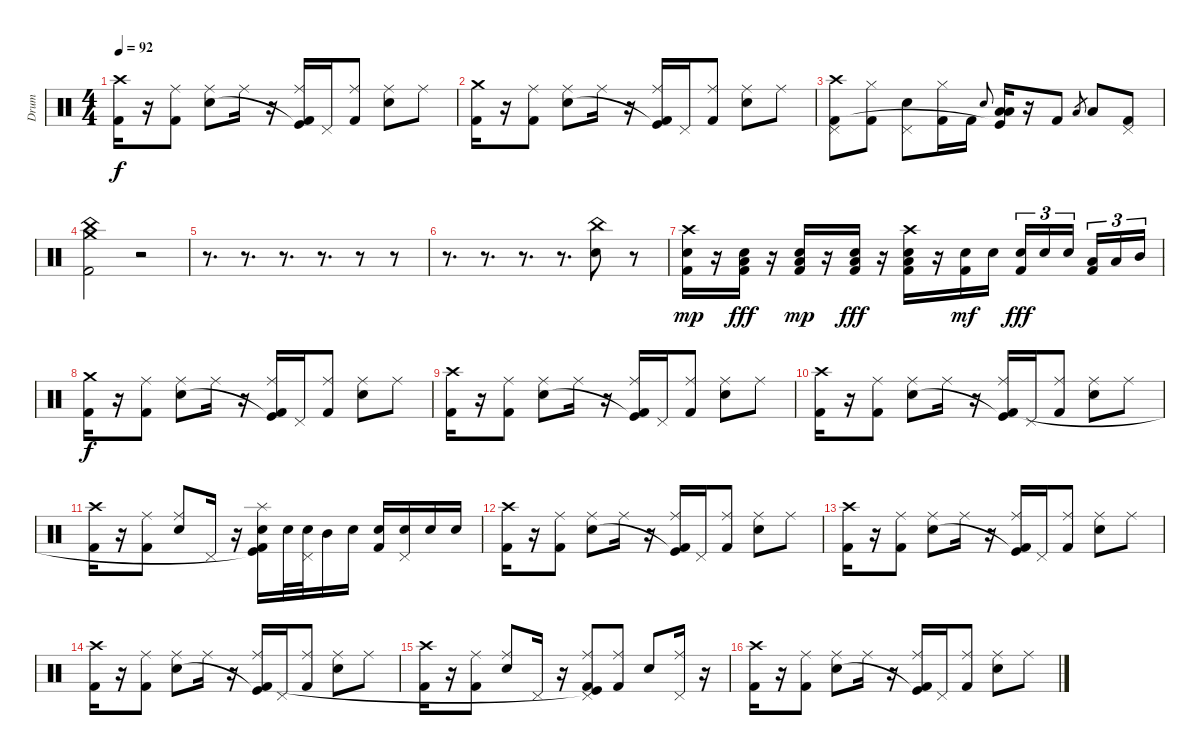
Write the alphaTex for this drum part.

\track ("Drum" "Drum") {instrument percussion}
\staff {score}
\articulation defaults
\ts (4 4)
\tempo 92
\clef neutral
\ks c
("Crash high (hit)" "Kick (hit) 2").16{dy f} r.16 ("Ride (middle)" "Kick (hit) 2").8 ("Ride (middle)" "Snare (hit) 2").8 "Ride (middle)".16 r.16 ("Ride (middle)" "Kick (hit)"{t} "Kick (hit) 2").16 "Pedal Hi-Hat (hit)".16 ("Ride (middle)" "Kick (hit) 2").8 ("Ride (middle)" "Snare (hit) 2").8 "Ride (middle)".8 |
("Crash medium (hit)" "Kick (hit) 2").16 r.16 ("Ride (middle)" "Kick (hit) 2").8 ("Ride (middle)" "Snare (hit) 2").8 "Ride (middle)".16 r.16 ("Ride (middle)" "Kick (hit)"{t} "Kick (hit) 2").16 "Pedal Hi-Hat (hit)".16 ("Ride (middle)" "Kick (hit) 2").8 ("Ride (middle)" "Snare (hit) 2").8 "Ride (middle)".8 |
("Crash high (hit)" "Pedal Hi-Hat (hit)" "Kick (hit) 2").8 ("Hi-Hat (closed)" "Kick (hit) 2").8 ("Snare (hit) 2" "Pedal Hi-Hat (hit)").8 ("Hi-Hat (closed)" "Kick (hit) 2").16 "Kick (hit) 2".16 "Snare (hit) 2".8{gr onbeat} ("Low Tom (hit)" "Low Tom (hit)" "Kick (hit)"{t}).16 r.16 "Kick (hit) 2".8 "Low Tom (hit)".8{gr} "Low Floor Tom (hit)".8 ("Pedal Hi-Hat (hit)" "Kick (hit) 2").8 |
("China (hit)" "Crash medium (hit)" "Kick (hit) 2").2 r.2 |
r.8{d} r.8{d} r.8{d} r.8{d} r.8 r.8 |
r.8{d} r.8{d} r.8{d} r.8{d} ("China (hit)" "Snare (hit) 2").8 r.8 |
("Crash high (hit)" "Snare (hit) 2" "Kick (hit) 2").16{dy mp} r.16 ("Snare (hit) 2" "Low Floor Tom (hit)" "Kick (hit) 2").16{dy fff} r.16 ("Snare (hit) 2" "Low Floor Tom (hit)" "Kick (hit) 2").16{dy mp} r.16 ("Snare (hit) 2" "Low Floor Tom (hit)" "Kick (hit) 2").16{dy fff} r.16 ("Crash high (hit)" "Snare (hit) 2" "Low Floor Tom (hit)" "Kick (hit) 2").16 r.16 ("Snare (hit) 2" "Kick (hit) 2").16{dy mf} "Snare (hit) 2".16 ("Snare (hit) 2" "Kick (hit) 2").16{tu (3 2) dy fff} "Snare (hit) 2".16{tu (3 2)} "Snare (hit) 2".16{tu (3 2) beam splitsecondary} ("Low Tom (hit)" "Kick (hit) 2").16{tu (3 2)} "Low Tom (hit)".16{tu (3 2)} "Mid Tom (hit)".16{tu (3 2)} |
("Crash medium (hit)" "Kick (hit) 2").16{dy f} r.16 ("Ride (middle)" "Kick (hit) 2").8 ("Ride (middle)" "Snare (hit) 2").8 "Ride (middle)".16 r.16 ("Ride (middle)" "Kick (hit)"{t} "Kick (hit) 2").16 "Pedal Hi-Hat (hit)".16 ("Ride (middle)" "Kick (hit) 2").8 ("Ride (middle)" "Snare (hit) 2").8 "Ride (middle)".8 |
("Crash high (hit)" "Kick (hit) 2").16 r.16 ("Ride (middle)" "Kick (hit) 2").8 ("Ride (middle)" "Snare (hit) 2").8 "Ride (middle)".16 r.16 ("Ride (middle)" "Kick (hit)"{t} "Kick (hit) 2").16 "Pedal Hi-Hat (hit)".16 ("Ride (middle)" "Kick (hit) 2").8 ("Ride (middle)" "Snare (hit) 2").8 "Ride (middle)".8 |
("Crash high (hit)" "Kick (hit) 2").16 r.16 ("Ride (middle)" "Kick (hit) 2").8 ("Ride (middle)" "Snare (hit) 2").8 "Ride (middle)".16 r.16 ("Ride (middle)" "Kick (hit)"{t} "Kick (hit) 2").16 "Pedal Hi-Hat (hit)".16 ("Ride (middle)" "Kick (hit) 2").8 ("Ride (middle)" "Snare (hit) 2").8 "Ride (middle)".8 |
("Crash high (hit)" "Kick (hit) 2").16 r.16 ("Ride (middle)" "Kick (hit) 2").8 ("Ride (middle)" "Snare (hit) 2").8 "Pedal Hi-Hat (hit)".16 r.16 ("Splash (hit)" "Snare (hit) 2" "Kick (hit)"{t} "Kick (hit) 2").16 "Snare (hit) 2".32 ("Snare (hit) 2" "Pedal Hi-Hat (hit)").32 "Mid Tom (hit)".16 "Snare (hit) 2".16 ("Snare (hit) 2" "Kick (hit) 2").16 ("Snare (hit) 2" "Pedal Hi-Hat (hit)").16 "Snare (hit) 2".16 "Snare (hit) 2".16 |
("Crash high (hit)" "Kick (hit) 2").16 r.16 ("Ride (middle)" "Kick (hit) 2").8 ("Ride (middle)" "Snare (hit) 2").8 "Ride (middle)".16 r.16 ("Ride (middle)" "Kick (hit)"{t} "Kick (hit) 2").16 "Pedal Hi-Hat (hit)".16 ("Ride (middle)" "Kick (hit) 2").8 ("Ride (middle)" "Snare (hit) 2").8 "Ride (middle)".8 |
("Crash high (hit)" "Kick (hit) 2").16 r.16 ("Ride (middle)" "Kick (hit) 2").8 ("Ride (middle)" "Snare (hit) 2").8 "Ride (middle)".16 r.16 ("Ride (middle)" "Kick (hit)"{t} "Kick (hit) 2").16 "Pedal Hi-Hat (hit)".16 ("Ride (middle)" "Kick (hit) 2").8 ("Ride (middle)" "Snare (hit) 2").8 "Ride (middle)".8 |
("Crash high (hit)" "Kick (hit) 2").16 r.16 ("Ride (middle)" "Kick (hit) 2").8 ("Ride (middle)" "Snare (hit) 2").8 "Ride (middle)".16 r.16 ("Ride (middle)" "Kick (hit)"{t} "Kick (hit) 2").16 "Pedal Hi-Hat (hit)".16 ("Ride (middle)" "Kick (hit) 2").8 ("Ride (middle)" "Snare (hit) 2").8 "Ride (middle)".8 |
("Crash high (hit)" "Kick (hit) 2").16 r.16 ("Ride (middle)" "Kick (hit) 2").8 ("Ride (middle)" "Snare (hit) 2").8 "Pedal Hi-Hat (hit)".16 r.16 ("Ride (middle)" "Pedal Hi-Hat (hit)" "Kick (hit)"{t} "Kick (hit) 2").8 ("Ride (middle)" "Kick (hit) 2").8 "Snare (hit) 2".8 ("Ride (middle)" "Pedal Hi-Hat (hit)").16 r.16 |
("Crash high (hit)" "Kick (hit) 2").16 r.16 ("Ride (middle)" "Kick (hit) 2").8 ("Ride (middle)" "Snare (hit) 2").8 "Ride (middle)".16 r.16 ("Ride (middle)" "Kick (hit)"{t} "Kick (hit) 2").16 "Pedal Hi-Hat (hit)".16 ("Ride (middle)" "Kick (hit) 2").8 ("Ride (middle)" "Snare (hit) 2").8 "Ride (middle)".8
